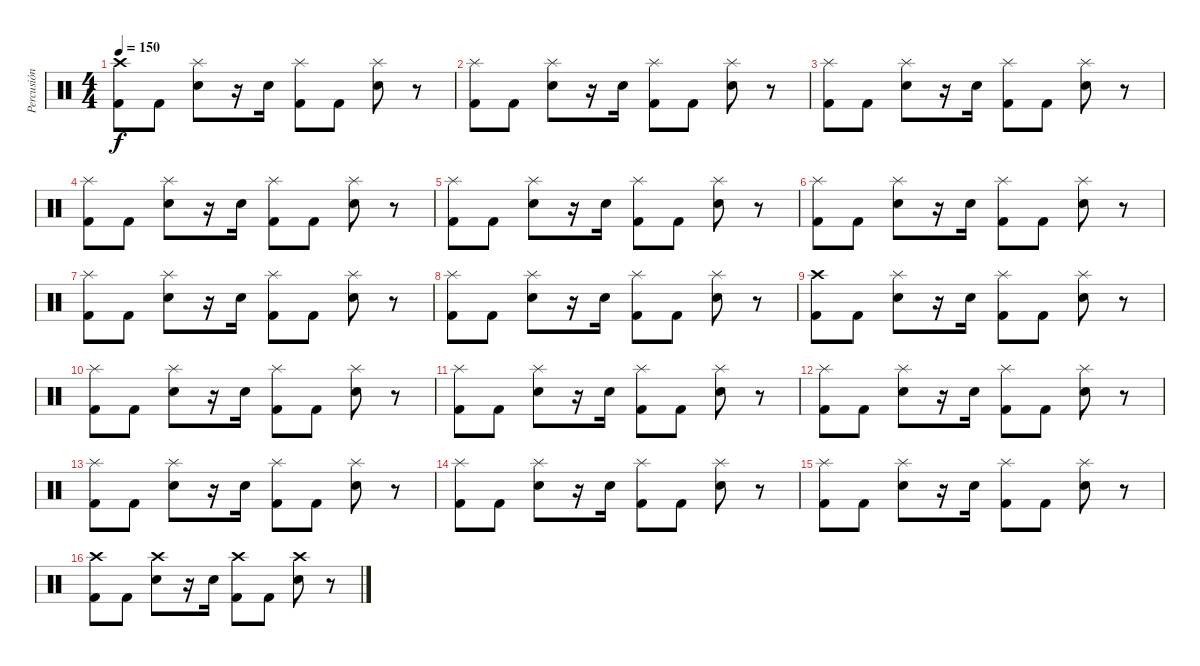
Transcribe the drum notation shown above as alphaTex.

\track ("Percusión" "Percusión") {instrument percussion}
\staff {score}
\articulation defaults
\ts (4 4)
\tempo 150
\clef neutral
\ks c
("Crash high (hit)" "Kick (hit) 2").8{dy f} "Kick (hit) 2".8 ("Splash (hit)" "Snare (hit) 2").8 r.16 "Snare (hit) 2".16 ("Splash (hit)" "Kick (hit) 2").8 "Kick (hit) 2".8 ("Splash (hit)" "Snare (hit) 2").8 r.8 |
("Splash (hit)" "Kick (hit) 2").8 "Kick (hit) 2".8 ("Splash (hit)" "Snare (hit) 2").8 r.16 "Snare (hit) 2".16 ("Splash (hit)" "Kick (hit) 2").8 "Kick (hit) 2".8 ("Splash (hit)" "Snare (hit) 2").8 r.8 |
("Splash (hit)" "Kick (hit) 2").8 "Kick (hit) 2".8 ("Splash (hit)" "Snare (hit) 2").8 r.16 "Snare (hit) 2".16 ("Splash (hit)" "Kick (hit) 2").8 "Kick (hit) 2".8 ("Splash (hit)" "Snare (hit) 2").8 r.8 |
("Splash (hit)" "Kick (hit) 2").8 "Kick (hit) 2".8 ("Splash (hit)" "Snare (hit) 2").8 r.16 "Snare (hit) 2".16 ("Splash (hit)" "Kick (hit) 2").8 "Kick (hit) 2".8 ("Splash (hit)" "Snare (hit) 2").8 r.8 |
("Splash (hit)" "Kick (hit) 2").8 "Kick (hit) 2".8 ("Splash (hit)" "Snare (hit) 2").8 r.16 "Snare (hit) 2".16 ("Splash (hit)" "Kick (hit) 2").8 "Kick (hit) 2".8 ("Splash (hit)" "Snare (hit) 2").8 r.8 |
("Splash (hit)" "Kick (hit) 2").8 "Kick (hit) 2".8 ("Splash (hit)" "Snare (hit) 2").8 r.16 "Snare (hit) 2".16 ("Splash (hit)" "Kick (hit) 2").8 "Kick (hit) 2".8 ("Splash (hit)" "Snare (hit) 2").8 r.8 |
("Splash (hit)" "Kick (hit) 2").8 "Kick (hit) 2".8 ("Splash (hit)" "Snare (hit) 2").8 r.16 "Snare (hit) 2".16 ("Splash (hit)" "Kick (hit) 2").8 "Kick (hit) 2".8 ("Splash (hit)" "Snare (hit) 2").8 r.8 |
("Splash (hit)" "Kick (hit) 2").8 "Kick (hit) 2".8 ("Splash (hit)" "Snare (hit) 2").8 r.16 "Snare (hit) 2".16 ("Splash (hit)" "Kick (hit) 2").8 "Kick (hit) 2".8 ("Splash (hit)" "Snare (hit) 2").8 r.8 |
("Crash high (hit)" "Kick (hit) 2").8 "Kick (hit) 2".8 ("Splash (hit)" "Snare (hit) 2").8 r.16 "Snare (hit) 2".16 ("Splash (hit)" "Kick (hit) 2").8 "Kick (hit) 2".8 ("Splash (hit)" "Snare (hit) 2").8 r.8 |
("Splash (hit)" "Kick (hit) 2").8 "Kick (hit) 2".8 ("Splash (hit)" "Snare (hit) 2").8 r.16 "Snare (hit) 2".16 ("Splash (hit)" "Kick (hit) 2").8 "Kick (hit) 2".8 ("Splash (hit)" "Snare (hit) 2").8 r.8 |
("Splash (hit)" "Kick (hit) 2").8 "Kick (hit) 2".8 ("Splash (hit)" "Snare (hit) 2").8 r.16 "Snare (hit) 2".16 ("Splash (hit)" "Kick (hit) 2").8 "Kick (hit) 2".8 ("Splash (hit)" "Snare (hit) 2").8 r.8 |
("Splash (hit)" "Kick (hit) 2").8 "Kick (hit) 2".8 ("Splash (hit)" "Snare (hit) 2").8 r.16 "Snare (hit) 2".16 ("Splash (hit)" "Kick (hit) 2").8 "Kick (hit) 2".8 ("Splash (hit)" "Snare (hit) 2").8 r.8 |
("Splash (hit)" "Kick (hit) 2").8 "Kick (hit) 2".8 ("Splash (hit)" "Snare (hit) 2").8 r.16 "Snare (hit) 2".16 ("Splash (hit)" "Kick (hit) 2").8 "Kick (hit) 2".8 ("Splash (hit)" "Snare (hit) 2").8 r.8 |
("Splash (hit)" "Kick (hit) 2").8 "Kick (hit) 2".8 ("Splash (hit)" "Snare (hit) 2").8 r.16 "Snare (hit) 2".16 ("Splash (hit)" "Kick (hit) 2").8 "Kick (hit) 2".8 ("Splash (hit)" "Snare (hit) 2").8 r.8 |
("Splash (hit)" "Kick (hit) 2").8 "Kick (hit) 2".8 ("Splash (hit)" "Snare (hit) 2").8 r.16 "Snare (hit) 2".16 ("Splash (hit)" "Kick (hit) 2").8 "Kick (hit) 2".8 ("Splash (hit)" "Snare (hit) 2").8 r.8 |
("Crash high (hit)" "Kick (hit) 2").8 "Kick (hit) 2".8 ("Crash high (hit)" "Snare (hit) 2").8 r.16 "Snare (hit) 2".16 ("Crash high (hit)" "Kick (hit) 2").8 "Kick (hit) 2".8 ("Crash high (hit)" "Snare (hit) 2").8 r.8
